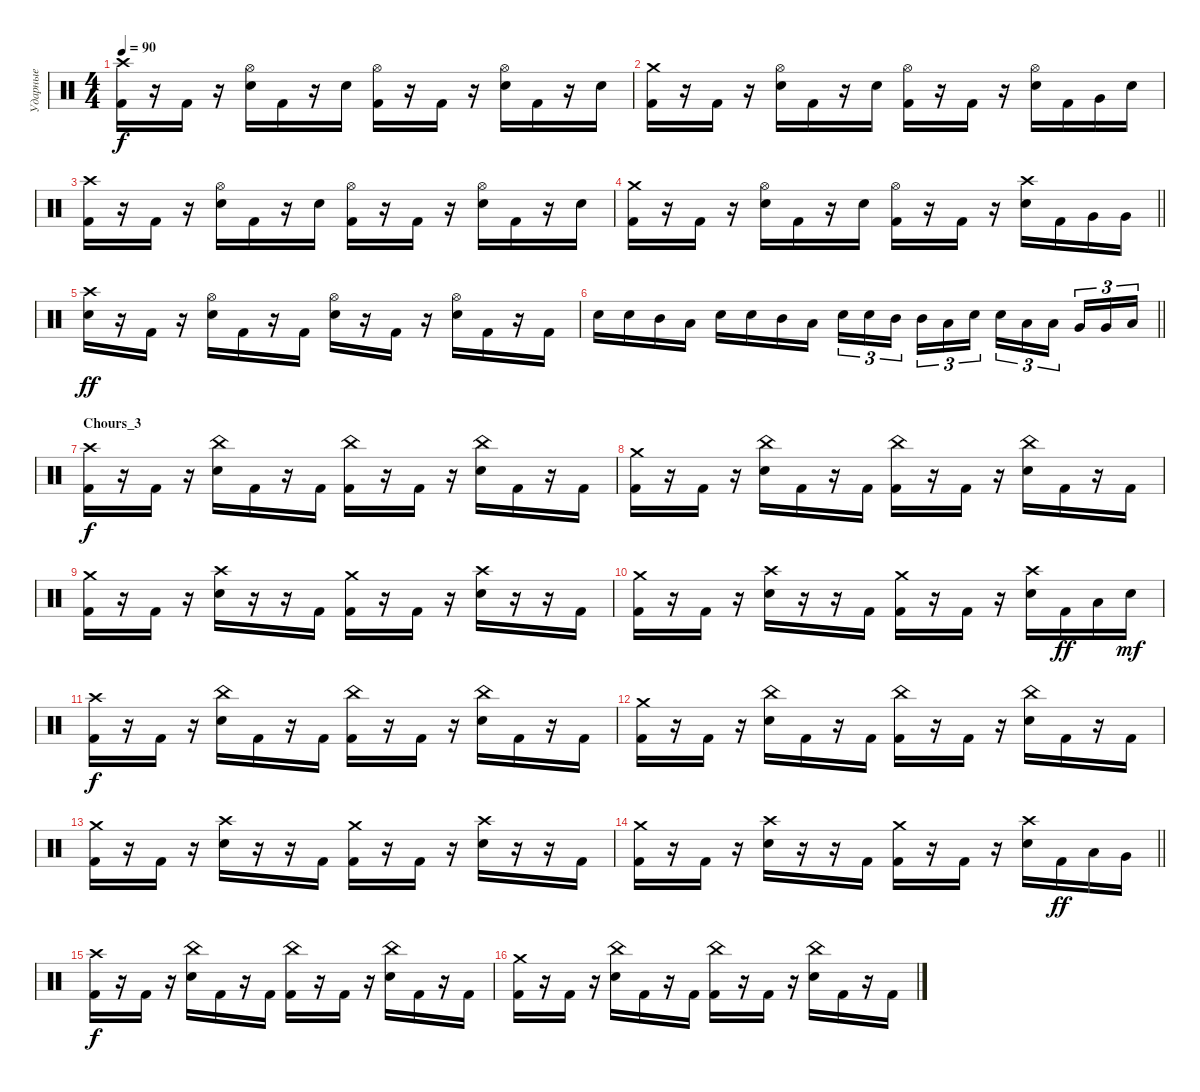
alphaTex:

\track ("Ударные" "Ударные") {instrument percussion}
\staff {score}
\articulation defaults
\ts (4 4)
\tempo 90
\clef neutral
\ks c
("Crash high (hit)" "Kick (hit) 2").16{dy f} r.16 "Kick (hit) 2".16 r.16 ("Hi-Hat (open)" "Electric Snare (hit)").16 "Kick (hit) 2".16 r.16 "Electric Snare (hit)".16 ("Hi-Hat (open)" "Kick (hit) 2").16 r.16 "Kick (hit) 2".16 r.16 ("Hi-Hat (open)" "Electric Snare (hit)").16 "Kick (hit) 2".16 r.16 "Electric Snare (hit)".16 |
("Crash medium (hit)" "Kick (hit) 2").16 r.16 "Kick (hit) 2".16 r.16 ("Hi-Hat (open)" "Electric Snare (hit)").16 "Kick (hit) 2".16 r.16 "Electric Snare (hit)".16 ("Hi-Hat (open)" "Kick (hit) 2").16 r.16 "Kick (hit) 2".16 r.16 ("Hi-Hat (open)" "Electric Snare (hit)").16 "Kick (hit) 2".16 "Very Low Tom (hit)".16 "Electric Snare (hit)".16 |
("Crash high (hit)" "Kick (hit) 2").16 r.16 "Kick (hit) 2".16 r.16 ("Hi-Hat (open)" "Electric Snare (hit)").16 "Kick (hit) 2".16 r.16 "Electric Snare (hit)".16 ("Hi-Hat (open)" "Kick (hit) 2").16 r.16 "Kick (hit) 2".16 r.16 ("Hi-Hat (open)" "Electric Snare (hit)").16 "Kick (hit) 2".16 r.16 "Electric Snare (hit)".16 |
\barLineRight lightlight
("Crash medium (hit)" "Kick (hit) 2").16 r.16 "Kick (hit) 2".16 r.16 ("Hi-Hat (open)" "Electric Snare (hit)").16 "Kick (hit) 2".16 r.16 "Electric Snare (hit)".16 ("Hi-Hat (open)" "Kick (hit) 2").16 r.16 "Kick (hit) 2".16 r.16 ("Crash high (hit)" "Electric Snare (hit)").16 "Kick (hit) 2".16 "Very Low Tom (hit)".16 "Very Low Tom (hit)".16 |
("Crash high (hit)" "Electric Snare (hit)").16{dy ff} r.16 "Kick (hit) 2".16 r.16 ("Hi-Hat (open)" "Electric Snare (hit)").16 "Kick (hit) 2".16 r.16 "Kick (hit) 2".16 ("Hi-Hat (open)" "Electric Snare (hit)").16 r.16 "Kick (hit) 2".16 r.16 ("Hi-Hat (open)" "Electric Snare (hit)").16 "Kick (hit) 2".16 r.16 "Kick (hit) 2".16 |
\barLineRight lightlight "Electric Snare (hit)".16 "Electric Snare (hit)".16 "Mid Tom (hit)".16 "Low Tom (hit)".16 "Electric Snare (hit)".16 "Electric Snare (hit)".16 "Mid Tom (hit)".16 "Low Tom (hit)".16 "Electric Snare (hit)".16{tu (3 2)} "Electric Snare (hit)".16{tu (3 2)} "Mid Tom (hit)".16{tu (3 2) beam splitsecondary} "Mid Tom (hit)".16{tu (3 2)} "Low Tom (hit)".16{tu (3 2)} "Electric Snare (hit)".16{tu (3 2)} "Electric Snare (hit)".16{tu (3 2)} "Low Tom (hit)".16{tu (3 2)} "Low Tom (hit)".16{tu (3 2) beam splitsecondary} "Very Low Tom (hit)".16{tu (3 2)} "Very Low Tom (hit)".16{tu (3 2)} "Low Floor Tom (hit)".16{tu (3 2)}
|
\section ("" "Chours_3")
("Crash high (hit)" "Kick (hit) 2").16{dy f} r.16 "Kick (hit) 2".16 r.16 ("China (hit)" "Electric Snare (hit)").16 "Kick (hit) 2".16 r.16 "Kick (hit) 2".16 ("China (hit)" "Kick (hit) 2").16 r.16 "Kick (hit) 2".16 r.16 ("China (hit)" "Electric Snare (hit)").16 "Kick (hit) 2".16 r.16 "Kick (hit) 2".16 |
("Crash medium (hit)" "Kick (hit) 2").16 r.16 "Kick (hit) 2".16 r.16 ("China (hit)" "Electric Snare (hit)").16 "Kick (hit) 2".16 r.16 "Kick (hit) 2".16 ("China (hit)" "Kick (hit) 2").16 r.16 "Kick (hit) 2".16 r.16 ("China (hit)" "Electric Snare (hit)").16 "Kick (hit) 2".16 r.16 "Kick (hit) 2".16 |
("Crash medium (hit)" "Kick (hit) 2").16 r.16 "Kick (hit) 2".16 r.16 ("Crash high (hit)" "Electric Snare (hit)").16 r.16 r.16 "Kick (hit) 2".16 ("Crash medium (hit)" "Kick (hit) 2").16 r.16 "Kick (hit) 2".16 r.16 ("Crash high (hit)" "Electric Snare (hit)").16 r.16 r.16 "Kick (hit) 2".16 |
("Crash medium (hit)" "Kick (hit) 2").16 r.16 "Kick (hit) 2".16 r.16 ("Crash high (hit)" "Electric Snare (hit)").16 r.16 r.16 "Kick (hit) 2".16 ("Crash medium (hit)" "Kick (hit) 2").16 r.16 "Kick (hit) 2".16 r.16 ("Crash high (hit)" "Electric Snare (hit)").16 "Kick (hit) 2".16{dy ff} "Low Tom (hit)".16 "Electric Snare (hit)".16{dy mf} |
("Crash high (hit)" "Kick (hit) 2").16{dy f} r.16 "Kick (hit) 2".16 r.16 ("China (hit)" "Electric Snare (hit)").16 "Kick (hit) 2".16 r.16 "Kick (hit) 2".16 ("China (hit)" "Kick (hit) 2").16 r.16 "Kick (hit) 2".16 r.16 ("China (hit)" "Electric Snare (hit)").16 "Kick (hit) 2".16 r.16 "Kick (hit) 2".16 |
("Crash medium (hit)" "Kick (hit) 2").16 r.16 "Kick (hit) 2".16 r.16 ("China (hit)" "Electric Snare (hit)").16 "Kick (hit) 2".16 r.16 "Kick (hit) 2".16 ("China (hit)" "Kick (hit) 2").16 r.16 "Kick (hit) 2".16 r.16 ("China (hit)" "Electric Snare (hit)").16 "Kick (hit) 2".16 r.16 "Kick (hit) 2".16 |
("Crash medium (hit)" "Kick (hit) 2").16 r.16 "Kick (hit) 2".16 r.16 ("Crash high (hit)" "Electric Snare (hit)").16 r.16 r.16 "Kick (hit) 2".16 ("Crash medium (hit)" "Kick (hit) 2").16 r.16 "Kick (hit) 2".16 r.16 ("Crash high (hit)" "Electric Snare (hit)").16 r.16 r.16 "Kick (hit) 2".16 |
\barLineRight lightlight
("Crash medium (hit)" "Kick (hit) 2").16 r.16 "Kick (hit) 2".16 r.16 ("Crash high (hit)" "Electric Snare (hit)").16 r.16 r.16 "Kick (hit) 2".16 ("Crash medium (hit)" "Kick (hit) 2").16 r.16 "Kick (hit) 2".16 r.16 ("Crash high (hit)" "Electric Snare (hit)").16 "Kick (hit) 2".16{dy ff} "Low Tom (hit)".16 "Very Low Tom (hit)".16 |
("Crash high (hit)" "Kick (hit) 2").16{dy f} r.16 "Kick (hit) 2".16 r.16 ("China (hit)" "Electric Snare (hit)").16 "Kick (hit) 2".16 r.16 "Kick (hit) 2".16 ("China (hit)" "Kick (hit) 2").16 r.16 "Kick (hit) 2".16 r.16 ("China (hit)" "Electric Snare (hit)").16 "Kick (hit) 2".16 r.16 "Kick (hit) 2".16 |
("Crash medium (hit)" "Kick (hit) 2").16 r.16 "Kick (hit) 2".16 r.16 ("China (hit)" "Electric Snare (hit)").16 "Kick (hit) 2".16 r.16 "Kick (hit) 2".16 ("China (hit)" "Kick (hit) 2").16 r.16 "Kick (hit) 2".16 r.16 ("China (hit)" "Electric Snare (hit)").16 "Kick (hit) 2".16 r.16 "Kick (hit) 2".16
